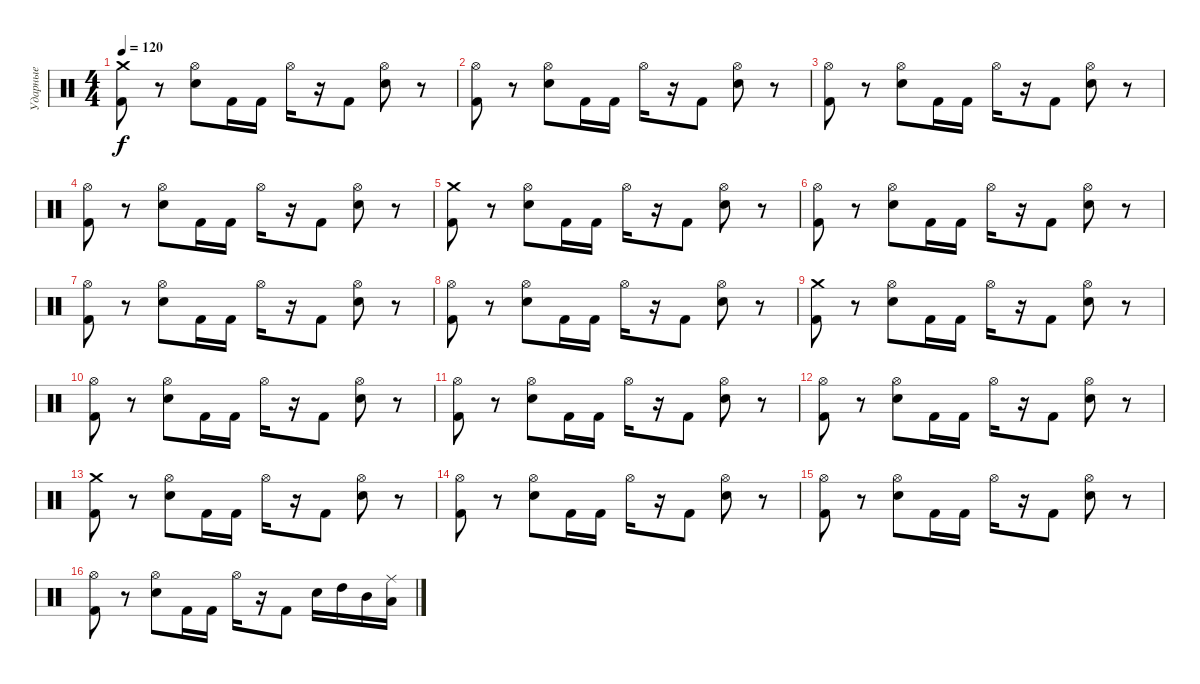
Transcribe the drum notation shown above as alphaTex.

\track ("Ударные" "Ударные") {instrument percussion}
\staff {score}
\articulation defaults
\ts (4 4)
\tempo 120
\clef neutral
\ks c
("Crash medium (hit)" "Kick (hit) 2").8{dy f} r.8 ("Hi-Hat (open)" "Snare (hit) 2").8 "Kick (hit) 2".16 "Kick (hit) 2".16 "Hi-Hat (open)".16 r.16 "Kick (hit) 2".8 ("Hi-Hat (open)" "Snare (hit) 2").8 r.8 |
("Hi-Hat (open)" "Kick (hit) 2").8 r.8 ("Hi-Hat (open)" "Snare (hit) 2").8 "Kick (hit) 2".16 "Kick (hit) 2".16 "Hi-Hat (open)".16 r.16 "Kick (hit) 2".8 ("Hi-Hat (open)" "Snare (hit) 2").8 r.8 |
("Hi-Hat (open)" "Kick (hit) 2").8 r.8 ("Hi-Hat (open)" "Snare (hit) 2").8 "Kick (hit) 2".16 "Kick (hit) 2".16 "Hi-Hat (open)".16 r.16 "Kick (hit) 2".8 ("Hi-Hat (open)" "Snare (hit) 2").8 r.8 |
("Hi-Hat (open)" "Kick (hit) 2").8 r.8 ("Hi-Hat (open)" "Snare (hit) 2").8 "Kick (hit) 2".16 "Kick (hit) 2".16 "Hi-Hat (open)".16 r.16 "Kick (hit) 2".8 ("Hi-Hat (open)" "Snare (hit) 2").8 r.8 |
("Crash medium (hit)" "Kick (hit) 2").8 r.8 ("Hi-Hat (open)" "Snare (hit) 2").8 "Kick (hit) 2".16 "Kick (hit) 2".16 "Hi-Hat (open)".16 r.16 "Kick (hit) 2".8 ("Hi-Hat (open)" "Snare (hit) 2").8 r.8 |
("Hi-Hat (open)" "Kick (hit) 2").8 r.8 ("Hi-Hat (open)" "Snare (hit) 2").8 "Kick (hit) 2".16 "Kick (hit) 2".16 "Hi-Hat (open)".16 r.16 "Kick (hit) 2".8 ("Hi-Hat (open)" "Snare (hit) 2").8 r.8 |
("Hi-Hat (open)" "Kick (hit) 2").8 r.8 ("Hi-Hat (open)" "Snare (hit) 2").8 "Kick (hit) 2".16 "Kick (hit) 2".16 "Hi-Hat (open)".16 r.16 "Kick (hit) 2".8 ("Hi-Hat (open)" "Snare (hit) 2").8 r.8 |
("Hi-Hat (open)" "Kick (hit) 2").8 r.8 ("Hi-Hat (open)" "Snare (hit) 2").8 "Kick (hit) 2".16 "Kick (hit) 2".16 "Hi-Hat (open)".16 r.16 "Kick (hit) 2".8 ("Hi-Hat (open)" "Snare (hit) 2").8 r.8 |
("Crash medium (hit)" "Kick (hit) 2").8 r.8 ("Hi-Hat (open)" "Snare (hit) 2").8 "Kick (hit) 2".16 "Kick (hit) 2".16 "Hi-Hat (open)".16 r.16 "Kick (hit) 2".8 ("Hi-Hat (open)" "Snare (hit) 2").8 r.8 |
("Hi-Hat (open)" "Kick (hit) 2").8 r.8 ("Hi-Hat (open)" "Snare (hit) 2").8 "Kick (hit) 2".16 "Kick (hit) 2".16 "Hi-Hat (open)".16 r.16 "Kick (hit) 2".8 ("Hi-Hat (open)" "Snare (hit) 2").8 r.8 |
("Hi-Hat (open)" "Kick (hit) 2").8 r.8 ("Hi-Hat (open)" "Snare (hit) 2").8 "Kick (hit) 2".16 "Kick (hit) 2".16 "Hi-Hat (open)".16 r.16 "Kick (hit) 2".8 ("Hi-Hat (open)" "Snare (hit) 2").8 r.8 |
("Hi-Hat (open)" "Kick (hit) 2").8 r.8 ("Hi-Hat (open)" "Snare (hit) 2").8 "Kick (hit) 2".16 "Kick (hit) 2".16 "Hi-Hat (open)".16 r.16 "Kick (hit) 2".8 ("Hi-Hat (open)" "Snare (hit) 2").8 r.8 |
("Crash medium (hit)" "Kick (hit) 2").8 r.8 ("Hi-Hat (open)" "Snare (hit) 2").8 "Kick (hit) 2".16 "Kick (hit) 2".16 "Hi-Hat (open)".16 r.16 "Kick (hit) 2".8 ("Hi-Hat (open)" "Snare (hit) 2").8 r.8 |
("Hi-Hat (open)" "Kick (hit) 2").8 r.8 ("Hi-Hat (open)" "Snare (hit) 2").8 "Kick (hit) 2".16 "Kick (hit) 2".16 "Hi-Hat (open)".16 r.16 "Kick (hit) 2".8 ("Hi-Hat (open)" "Snare (hit) 2").8 r.8 |
("Hi-Hat (open)" "Kick (hit) 2").8 r.8 ("Hi-Hat (open)" "Snare (hit) 2").8 "Kick (hit) 2".16 "Kick (hit) 2".16 "Hi-Hat (open)".16 r.16 "Kick (hit) 2".8 ("Hi-Hat (open)" "Snare (hit) 2").8 r.8 |
("Hi-Hat (open)" "Kick (hit) 2").8 r.8 ("Hi-Hat (open)" "Snare (hit) 2").8 "Kick (hit) 2".16 "Kick (hit) 2".16 "Hi-Hat (open)".16 r.16 "Kick (hit) 2".8 "Snare (hit) 2".16 "High Tom (hit)".16 "Mid Tom (hit)".16 ("Ride (middle)" "Low Tom (hit)").16
